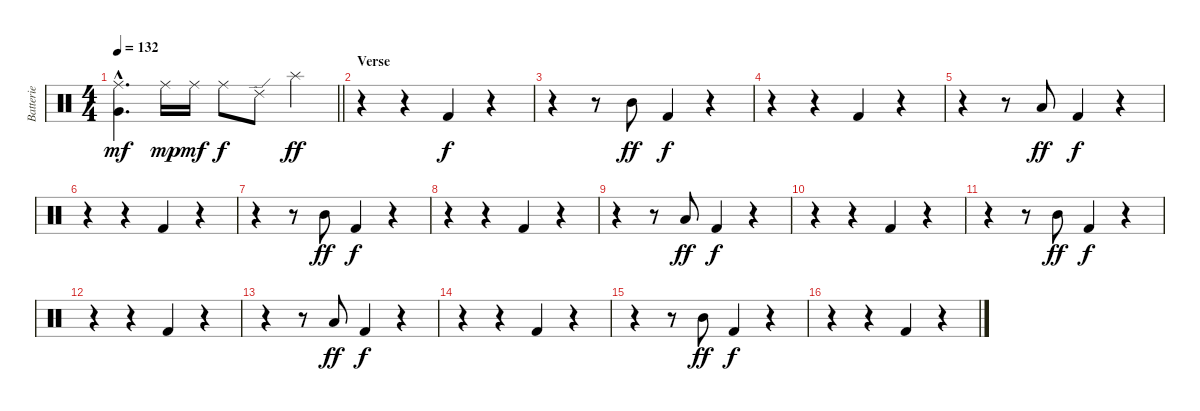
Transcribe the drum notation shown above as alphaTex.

\track ("Batterie" "Batterie") {instrument percussion}
\staff {score}
\articulation defaults
\ts (4 4)
\tempo 132
\clef neutral
\barLineRight lightlight
\ks c
("Ride (middle)"{hac} "Very Low Tom (hit)"{hac}).4{d dy mf} "Ride (middle)".16{dy mp} "Ride (middle)".16{dy mf} "Ride (middle)".8{dy f} "Ride (edge) 2".8 "Splash (hit)".4{dy ff} |
\section ("" "Verse")
r.4 r.4 "Kick (hit) 2".4{dy f} r.4 |
r.4 r.8 "Mid Tom (hit)".8{dy ff} "Kick (hit) 2".4{dy f} r.4 |
r.4 r.4 "Kick (hit) 2".4 r.4 |
r.4 r.8 "Low Floor Tom (hit)".8{dy ff} "Kick (hit) 2".4{dy f} r.4 |
r.4 r.4 "Kick (hit) 2".4 r.4 |
r.4 r.8 "Mid Tom (hit)".8{dy ff} "Kick (hit) 2".4{dy f} r.4 |
r.4 r.4 "Kick (hit) 2".4 r.4 |
r.4 r.8 "Low Floor Tom (hit)".8{dy ff} "Kick (hit) 2".4{dy f} r.4 |
r.4 r.4 "Kick (hit) 2".4 r.4 |
r.4 r.8 "Mid Tom (hit)".8{dy ff} "Kick (hit) 2".4{dy f} r.4 |
r.4 r.4 "Kick (hit) 2".4 r.4 |
r.4 r.8 "Low Floor Tom (hit)".8{dy ff} "Kick (hit) 2".4{dy f} r.4 |
r.4 r.4 "Kick (hit) 2".4 r.4 |
r.4 r.8 "Mid Tom (hit)".8{dy ff} "Kick (hit) 2".4{dy f} r.4 |
r.4 r.4 "Kick (hit) 2".4 r.4
